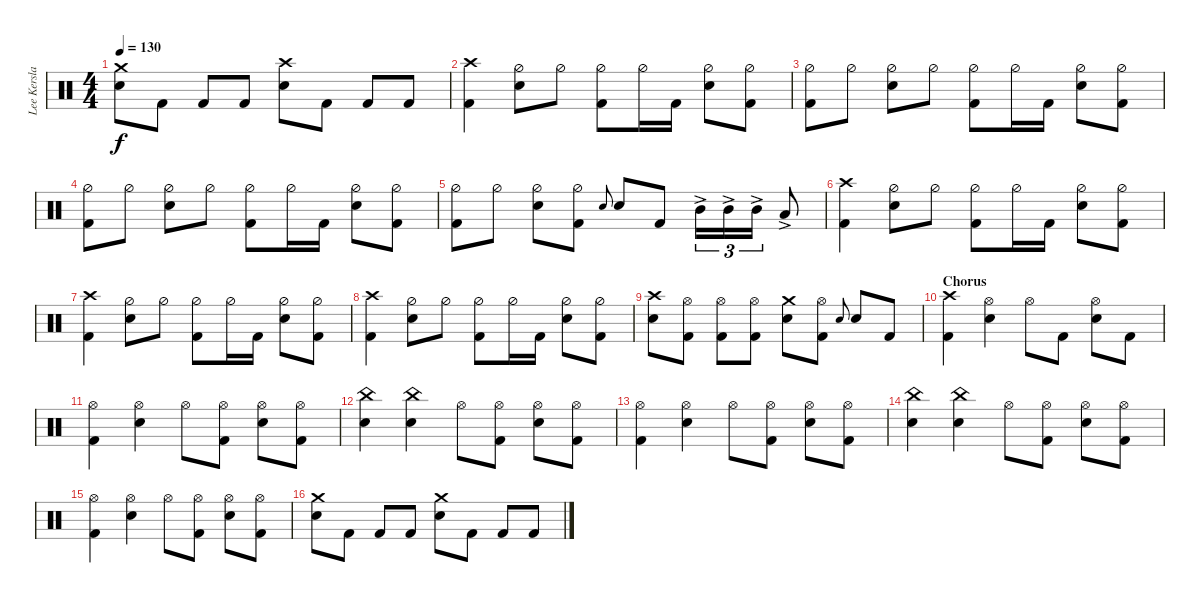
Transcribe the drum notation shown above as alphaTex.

\track ("Lee Kerslake" "Lee Kersla") {instrument percussion}
\staff {score}
\articulation defaults
\ts (4 4)
\tempo 130
\clef neutral
\ks c
("Snare (hit) 2" "Crash medium (hit)").8{dy f} "Kick (hit) 2".8 "Kick (hit) 2".8 "Kick (hit) 2".8 ("Snare (hit) 2" "Crash high (hit)").8 "Kick (hit) 2".8 "Kick (hit) 2".8 "Kick (hit) 2".8 |
("Kick (hit) 2" "Crash high (hit)").4 ("Snare (hit) 2" "Hi-Hat (half)").8 "Hi-Hat (half)".8 ("Kick (hit) 2" "Hi-Hat (half)").8 "Hi-Hat (half)".16 "Kick (hit) 2".16 ("Snare (hit) 2" "Hi-Hat (half)").8 ("Kick (hit) 2" "Hi-Hat (half)").8 |
("Kick (hit) 2" "Hi-Hat (half)").8 "Hi-Hat (half)".8 ("Snare (hit) 2" "Hi-Hat (half)").8 "Hi-Hat (half)".8 ("Kick (hit) 2" "Hi-Hat (half)").8 "Hi-Hat (half)".16 "Kick (hit) 2".16 ("Snare (hit) 2" "Hi-Hat (half)").8 ("Kick (hit) 2" "Hi-Hat (half)").8 |
("Kick (hit) 2" "Hi-Hat (half)").8 "Hi-Hat (half)".8 ("Snare (hit) 2" "Hi-Hat (half)").8 "Hi-Hat (half)".8 ("Kick (hit) 2" "Hi-Hat (half)").8 "Hi-Hat (half)".16 "Kick (hit) 2".16 ("Snare (hit) 2" "Hi-Hat (half)").8 ("Kick (hit) 2" "Hi-Hat (half)").8 |
("Hi-Hat (half)" "Kick (hit) 2").8 "Hi-Hat (half)".8 ("Hi-Hat (half)" "Snare (hit) 2").8 ("Kick (hit) 2" "Hi-Hat (half)").8 "Snare (hit)".8{gr onbeat} "Snare (hit) 2".8 "Kick (hit) 2".8 "Mid Tom (hit)"{ac}.16{tu (3 2)} "Mid Tom (hit)"{ac}.16{tu (3 2)} "Mid Tom (hit)"{ac}.16{tu (3 2)} "Low Tom (hit)"{ac}.8 |
("Kick (hit) 2" "Crash high (hit)").4 ("Snare (hit) 2" "Hi-Hat (half)").8 "Hi-Hat (half)".8 ("Kick (hit) 2" "Hi-Hat (half)").8 "Hi-Hat (half)".16 "Kick (hit) 2".16 ("Snare (hit) 2" "Hi-Hat (half)").8 ("Kick (hit) 2" "Hi-Hat (half)").8 |
("Kick (hit) 2" "Crash high (hit)").4 ("Snare (hit) 2" "Hi-Hat (half)").8 "Hi-Hat (half)".8 ("Kick (hit) 2" "Hi-Hat (half)").8 "Hi-Hat (half)".16 "Kick (hit) 2".16 ("Snare (hit) 2" "Hi-Hat (half)").8 ("Kick (hit) 2" "Hi-Hat (half)").8 |
("Kick (hit) 2" "Crash high (hit)").4 ("Snare (hit) 2" "Hi-Hat (half)").8 "Hi-Hat (half)".8 ("Kick (hit) 2" "Hi-Hat (half)").8 "Hi-Hat (half)".16 "Kick (hit) 2".16 ("Snare (hit) 2" "Hi-Hat (half)").8 ("Kick (hit) 2" "Hi-Hat (half)").8 |
("Snare (hit) 2" "Crash high (hit)").8 ("Kick (hit) 2" "Hi-Hat (open)").8 ("Kick (hit) 2" "Hi-Hat (open)").8 ("Kick (hit) 2" "Hi-Hat (open)").8 ("Snare (hit) 2" "Crash medium (hit)").8 ("Kick (hit) 2" "Hi-Hat (open)").8 "Snare (hit)".8{gr onbeat} "Snare (hit) 2".8 "Kick (hit) 2".8 |
\section ("" "Chorus")
("Kick (hit) 2" "Crash high (hit)").4 ("Hi-Hat (open)" "Snare (hit) 2").4 "Hi-Hat (open)".8 "Kick (hit) 2".8 ("Snare (hit) 2" "Hi-Hat (open)").8 "Kick (hit) 2".8 |
("Hi-Hat (open)" "Kick (hit) 2").4 ("Hi-Hat (open)" "Snare (hit) 2").4 "Hi-Hat (open)".8 ("Kick (hit) 2" "Hi-Hat (open)").8 ("Snare (hit) 2" "Hi-Hat (open)").8 ("Kick (hit) 2" "Hi-Hat (open)").8 |
("Snare (hit) 2" "China (hit)").4 ("Snare (hit) 2" "China (hit)").4 "Hi-Hat (open)".8 ("Kick (hit) 2" "Hi-Hat (open)").8 ("Snare (hit) 2" "Hi-Hat (open)").8 ("Kick (hit) 2" "Hi-Hat (open)").8 |
("Hi-Hat (open)" "Kick (hit) 2").4 ("Hi-Hat (open)" "Snare (hit) 2").4 "Hi-Hat (open)".8 ("Kick (hit) 2" "Hi-Hat (open)").8 ("Snare (hit) 2" "Hi-Hat (open)").8 ("Kick (hit) 2" "Hi-Hat (open)").8 |
("Snare (hit) 2" "China (hit)").4 ("Snare (hit) 2" "China (hit)").4 "Hi-Hat (open)".8 ("Kick (hit) 2" "Hi-Hat (open)").8 ("Snare (hit) 2" "Hi-Hat (open)").8 ("Kick (hit) 2" "Hi-Hat (open)").8 |
("Hi-Hat (open)" "Kick (hit) 2").4 ("Hi-Hat (open)" "Snare (hit) 2").4 "Hi-Hat (open)".8 ("Kick (hit) 2" "Hi-Hat (open)").8 ("Snare (hit) 2" "Hi-Hat (open)").8 ("Kick (hit) 2" "Hi-Hat (open)").8 |
("Snare (hit) 2" "Crash medium (hit)").8 "Kick (hit) 2".8 "Kick (hit) 2".8 "Kick (hit) 2".8 ("Snare (hit) 2" "Crash medium (hit)").8 "Kick (hit) 2".8 "Kick (hit) 2".8 "Kick (hit) 2".8
